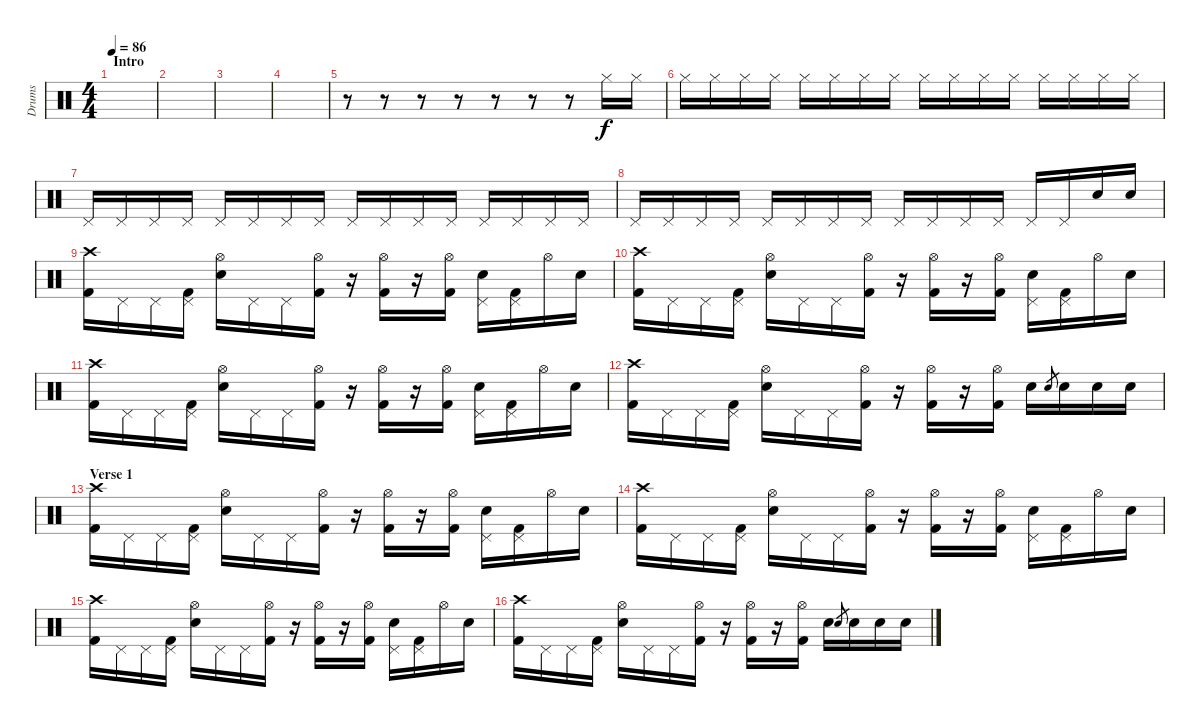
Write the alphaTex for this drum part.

\track ("Drums" "Drums") {instrument percussion}
\staff {score}
\articulation defaults
\ts (4 4)
\section ("" "Intro")
\tempo 86
\clef neutral
\ks c
|
|
|
|
r.8 r.8 r.8 r.8 r.8 r.8 r.8 "Hi-Hat (closed)".16 "Hi-Hat (closed)".16 |
"Hi-Hat (closed)".16 "Hi-Hat (closed)".16 "Hi-Hat (closed)".16 "Hi-Hat (closed)".16 "Hi-Hat (closed)".16 "Hi-Hat (closed)".16 "Hi-Hat (closed)".16 "Hi-Hat (closed)".16 "Hi-Hat (closed)".16 "Hi-Hat (closed)".16 "Hi-Hat (closed)".16 "Hi-Hat (closed)".16 "Hi-Hat (closed)".16 "Hi-Hat (closed)".16 "Hi-Hat (closed)".16 "Hi-Hat (closed)".16 |
"Pedal Hi-Hat (hit)".16 "Pedal Hi-Hat (hit)".16 "Pedal Hi-Hat (hit)".16 "Pedal Hi-Hat (hit)".16 "Pedal Hi-Hat (hit)".16 "Pedal Hi-Hat (hit)".16 "Pedal Hi-Hat (hit)".16 "Pedal Hi-Hat (hit)".16 "Pedal Hi-Hat (hit)".16 "Pedal Hi-Hat (hit)".16 "Pedal Hi-Hat (hit)".16 "Pedal Hi-Hat (hit)".16 "Pedal Hi-Hat (hit)".16 "Pedal Hi-Hat (hit)".16 "Pedal Hi-Hat (hit)".16 "Pedal Hi-Hat (hit)".16 |
"Pedal Hi-Hat (hit)".16 "Pedal Hi-Hat (hit)".16 "Pedal Hi-Hat (hit)".16 "Pedal Hi-Hat (hit)".16 "Pedal Hi-Hat (hit)".16 "Pedal Hi-Hat (hit)".16 "Pedal Hi-Hat (hit)".16 "Pedal Hi-Hat (hit)".16 "Pedal Hi-Hat (hit)".16 "Pedal Hi-Hat (hit)".16 "Pedal Hi-Hat (hit)".16 "Pedal Hi-Hat (hit)".16 "Pedal Hi-Hat (hit)".16 "Pedal Hi-Hat (hit)".16 "Snare (hit) 2".16 "Snare (hit) 2".16 |
("Crash high (hit)" "Kick (hit) 2").16 "Pedal Hi-Hat (hit)".16 "Pedal Hi-Hat (hit)".16 ("Pedal Hi-Hat (hit)" "Kick (hit) 2").16 ("Hi-Hat (open)" "Snare (hit) 2").16 "Pedal Hi-Hat (hit)".16 "Pedal Hi-Hat (hit)".16 ("Hi-Hat (open)" "Kick (hit) 2").16 r.16 ("Hi-Hat (open)" "Kick (hit) 2").16 r.16 ("Hi-Hat (open)" "Kick (hit) 2").16 ("Pedal Hi-Hat (hit)" "Snare (hit) 2").16 ("Pedal Hi-Hat (hit)" "Kick (hit) 2").16 "Hi-Hat (open)".16 "Snare (hit) 2".16 |
("Crash high (hit)" "Kick (hit) 2").16 "Pedal Hi-Hat (hit)".16 "Pedal Hi-Hat (hit)".16 ("Pedal Hi-Hat (hit)" "Kick (hit) 2").16 ("Hi-Hat (open)" "Snare (hit) 2").16 "Pedal Hi-Hat (hit)".16 "Pedal Hi-Hat (hit)".16 ("Hi-Hat (open)" "Kick (hit) 2").16 r.16 ("Hi-Hat (open)" "Kick (hit) 2").16 r.16 ("Hi-Hat (open)" "Kick (hit) 2").16 ("Pedal Hi-Hat (hit)" "Snare (hit) 2").16 ("Pedal Hi-Hat (hit)" "Kick (hit) 2").16 "Hi-Hat (open)".16 "Snare (hit) 2".16 |
("Crash high (hit)" "Kick (hit) 2").16 "Pedal Hi-Hat (hit)".16 "Pedal Hi-Hat (hit)".16 ("Pedal Hi-Hat (hit)" "Kick (hit) 2").16 ("Hi-Hat (open)" "Snare (hit) 2").16 "Pedal Hi-Hat (hit)".16 "Pedal Hi-Hat (hit)".16 ("Hi-Hat (open)" "Kick (hit) 2").16 r.16 ("Hi-Hat (open)" "Kick (hit) 2").16 r.16 ("Hi-Hat (open)" "Kick (hit) 2").16 ("Pedal Hi-Hat (hit)" "Snare (hit) 2").16 ("Pedal Hi-Hat (hit)" "Kick (hit) 2").16 "Hi-Hat (open)".16 "Snare (hit) 2".16 |
("Crash high (hit)" "Kick (hit) 2").16 "Pedal Hi-Hat (hit)".16 "Pedal Hi-Hat (hit)".16 ("Pedal Hi-Hat (hit)" "Kick (hit) 2").16 ("Hi-Hat (open)" "Snare (hit) 2").16 "Pedal Hi-Hat (hit)".16 "Pedal Hi-Hat (hit)".16 ("Hi-Hat (open)" "Kick (hit) 2").16 r.16 ("Hi-Hat (open)" "Kick (hit) 2").16 r.16 ("Hi-Hat (open)" "Kick (hit) 2").16 "Snare (hit) 2".16 "Snare (hit) 2".8{gr} "Snare (hit) 2".16 "Snare (hit) 2".16 "Snare (hit) 2".16 |
\section ("" "Verse 1")
("Crash high (hit)" "Kick (hit) 2").16 "Pedal Hi-Hat (hit)".16 "Pedal Hi-Hat (hit)".16 ("Pedal Hi-Hat (hit)" "Kick (hit) 2").16 ("Hi-Hat (open)" "Snare (hit) 2").16 "Pedal Hi-Hat (hit)".16 "Pedal Hi-Hat (hit)".16 ("Hi-Hat (open)" "Kick (hit) 2").16 r.16 ("Hi-Hat (open)" "Kick (hit) 2").16 r.16 ("Hi-Hat (open)" "Kick (hit) 2").16 ("Pedal Hi-Hat (hit)" "Snare (hit) 2").16 ("Pedal Hi-Hat (hit)" "Kick (hit) 2").16 "Hi-Hat (open)".16 "Snare (hit) 2".16 |
("Crash high (hit)" "Kick (hit) 2").16 "Pedal Hi-Hat (hit)".16 "Pedal Hi-Hat (hit)".16 ("Pedal Hi-Hat (hit)" "Kick (hit) 2").16 ("Hi-Hat (open)" "Snare (hit) 2").16 "Pedal Hi-Hat (hit)".16 "Pedal Hi-Hat (hit)".16 ("Hi-Hat (open)" "Kick (hit) 2").16 r.16 ("Hi-Hat (open)" "Kick (hit) 2").16 r.16 ("Hi-Hat (open)" "Kick (hit) 2").16 ("Pedal Hi-Hat (hit)" "Snare (hit) 2").16 ("Pedal Hi-Hat (hit)" "Kick (hit) 2").16 "Hi-Hat (open)".16 "Snare (hit) 2".16 |
("Crash high (hit)" "Kick (hit) 2").16 "Pedal Hi-Hat (hit)".16 "Pedal Hi-Hat (hit)".16 ("Pedal Hi-Hat (hit)" "Kick (hit) 2").16 ("Hi-Hat (open)" "Snare (hit) 2").16 "Pedal Hi-Hat (hit)".16 "Pedal Hi-Hat (hit)".16 ("Hi-Hat (open)" "Kick (hit) 2").16 r.16 ("Hi-Hat (open)" "Kick (hit) 2").16 r.16 ("Hi-Hat (open)" "Kick (hit) 2").16 ("Pedal Hi-Hat (hit)" "Snare (hit) 2").16 ("Pedal Hi-Hat (hit)" "Kick (hit) 2").16 "Hi-Hat (open)".16 "Snare (hit) 2".16 |
("Crash high (hit)" "Kick (hit) 2").16 "Pedal Hi-Hat (hit)".16 "Pedal Hi-Hat (hit)".16 ("Pedal Hi-Hat (hit)" "Kick (hit) 2").16 ("Hi-Hat (open)" "Snare (hit) 2").16 "Pedal Hi-Hat (hit)".16 "Pedal Hi-Hat (hit)".16 ("Hi-Hat (open)" "Kick (hit) 2").16 r.16 ("Hi-Hat (open)" "Kick (hit) 2").16 r.16 ("Hi-Hat (open)" "Kick (hit) 2").16 "Snare (hit) 2".16 "Snare (hit) 2".8{gr} "Snare (hit) 2".16 "Snare (hit) 2".16 "Snare (hit) 2".16
